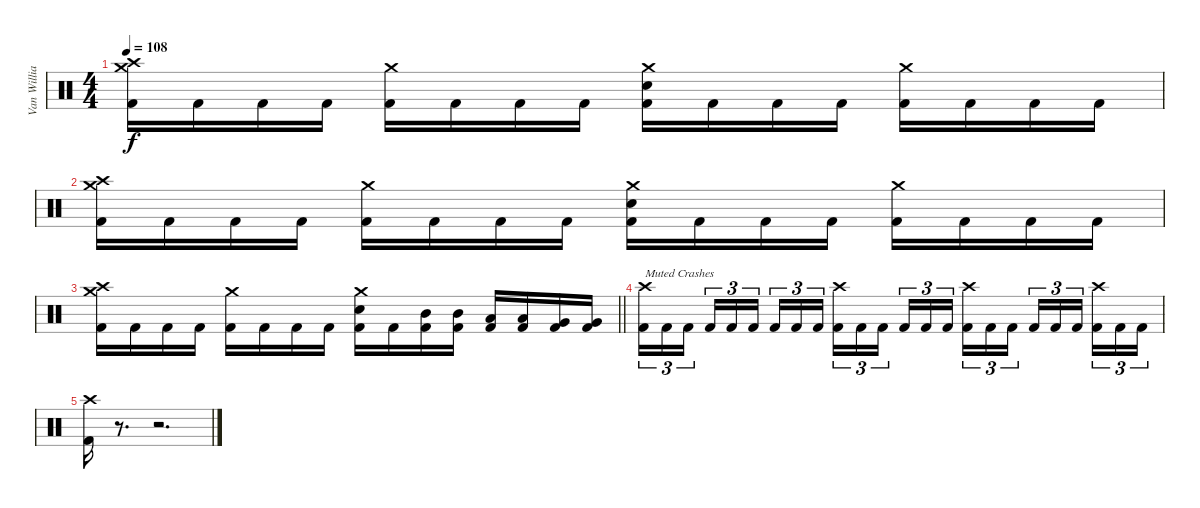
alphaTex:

\track ("Van Williams" "Van Willia") {instrument percussion}
\staff {score}
\articulation defaults
\ts (4 4)
\tempo 108
\clef neutral
\ks c
("Crash high (hit)" "Crash medium (hit)" "Kick (hit) 2").16{dy f} "Kick (hit) 2".16 "Kick (hit) 2".16 "Kick (hit) 2".16 ("Crash medium (hit)" "Kick (hit) 2").16 "Kick (hit) 2".16 "Kick (hit) 2".16 "Kick (hit) 2".16 ("Crash medium (hit)" "Snare (hit) 2" "Kick (hit) 2").16 "Kick (hit) 2".16 "Kick (hit) 2".16 "Kick (hit) 2".16 ("Crash medium (hit)" "Kick (hit) 2").16 "Kick (hit) 2".16 "Kick (hit) 2".16 "Kick (hit) 2".16 |
("Crash high (hit)" "Crash medium (hit)" "Kick (hit) 2").16 "Kick (hit) 2".16 "Kick (hit) 2".16 "Kick (hit) 2".16 ("Crash medium (hit)" "Kick (hit) 2").16 "Kick (hit) 2".16 "Kick (hit) 2".16 "Kick (hit) 2".16 ("Crash medium (hit)" "Snare (hit) 2" "Kick (hit) 2").16 "Kick (hit) 2".16 "Kick (hit) 2".16 "Kick (hit) 2".16 ("Crash medium (hit)" "Kick (hit) 2").16 "Kick (hit) 2".16 "Kick (hit) 2".16 "Kick (hit) 2".16 |
\barLineRight lightlight
("Crash high (hit)" "Crash medium (hit)" "Kick (hit) 2").16 "Kick (hit) 2".16 "Kick (hit) 2".16 "Kick (hit) 2".16 ("Crash medium (hit)" "Kick (hit) 2").16 "Kick (hit) 2".16 "Kick (hit) 2".16 "Kick (hit) 2".16 ("Crash medium (hit)" "Snare (hit) 2" "Kick (hit) 2").16 "Kick (hit) 2".16 ("Mid Tom (hit)" "Kick (hit) 2").16 ("Mid Tom (hit)" "Kick (hit) 2").16 ("Low Tom (hit)" "Kick (hit) 2").16 ("Low Tom (hit)" "Kick (hit) 2").16 ("Very Low Tom (hit)" "Kick (hit) 2").16 ("Very Low Tom (hit)" "Kick (hit) 2").16 |
("Crash high (hit)" "Kick (hit) 2").16{tu (3 2) txt "Muted Crashes"} "Kick (hit) 2".16{tu (3 2)} "Kick (hit) 2".16{tu (3 2) beam splitsecondary} "Kick (hit) 2".16{tu (3 2)} "Kick (hit) 2".16{tu (3 2)} "Kick (hit) 2".16{tu (3 2)} "Kick (hit) 2".16{tu (3 2)} "Kick (hit) 2".16{tu (3 2)} "Kick (hit) 2".16{tu (3 2) beam splitsecondary} ("Crash high (hit)" "Kick (hit) 2").16{tu (3 2)} "Kick (hit) 2".16{tu (3 2)} "Kick (hit) 2".16{tu (3 2)} "Kick (hit) 2".16{tu (3 2)} "Kick (hit) 2".16{tu (3 2)} "Kick (hit) 2".16{tu (3 2) beam splitsecondary} ("Crash high (hit)" "Kick (hit) 2").16{tu (3 2)} "Kick (hit) 2".16{tu (3 2)} "Kick (hit) 2".16{tu (3 2)} "Kick (hit) 2".16{tu (3 2)} "Kick (hit) 2".16{tu (3 2)} "Kick (hit) 2".16{tu (3 2) beam splitsecondary} ("Crash high (hit)" "Kick (hit) 2").16{tu (3 2)} "Kick (hit) 2".16{tu (3 2)} "Kick (hit) 2".16{tu (3 2)} |
("Crash high (hit)" "Kick (hit) 2").16 r.8{d volume 0} r.2{d}
